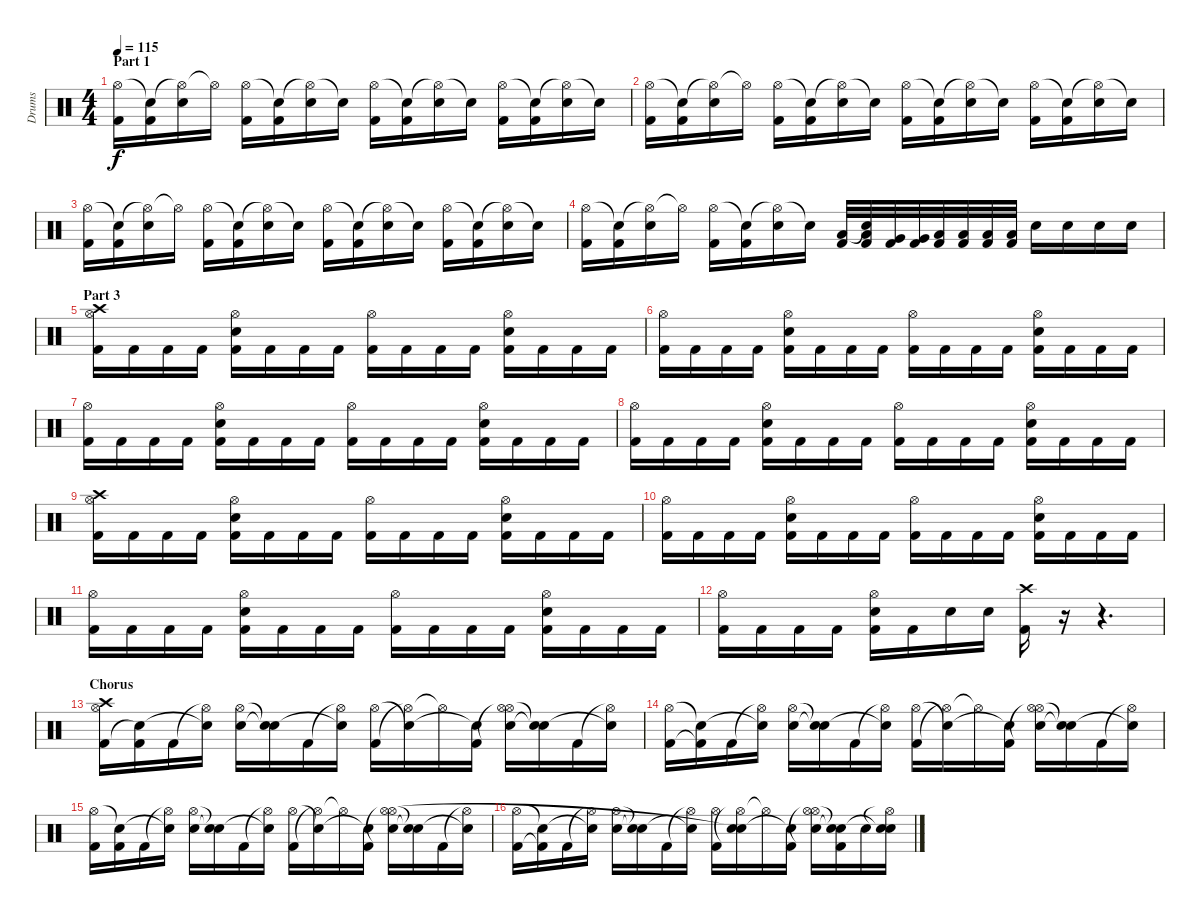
\track ("Drums" "Drums") {instrument percussion}
\staff {score}
\articulation defaults
\ts (4 4)
\section ("" "Part 1")
\tempo 115
\clef neutral
\ks c
("Hi-Hat (open)" "Kick (hit) 2").16{dy f} ("Snare (hit)"{t} "Kick (hit) 2").16 ("Hi-Hat (open)"{t} "Electric Snare (hit)").16 "Hi-Hat (open)"{t}.16 ("Hi-Hat (open)" "Kick (hit) 2").16 ("Snare (hit)"{t} "Kick (hit) 2").16 ("Hi-Hat (open)"{t} "Electric Snare (hit)").16 "Snare (hit)"{t}.16 ("Hi-Hat (open)" "Kick (hit) 2").16 ("Snare (hit)"{t} "Kick (hit) 2").16 ("Hi-Hat (open)"{t} "Electric Snare (hit)").16 "Snare (hit)"{t}.16 ("Hi-Hat (open)" "Kick (hit) 2").16 ("Snare (hit)"{t} "Kick (hit) 2").16 ("Hi-Hat (open)"{t} "Electric Snare (hit)").16 "Snare (hit)"{t}.16 |
("Hi-Hat (open)" "Kick (hit) 2").16 ("Snare (hit)"{t} "Kick (hit) 2").16 ("Hi-Hat (open)"{t} "Electric Snare (hit)").16 "Hi-Hat (open)"{t}.16 ("Hi-Hat (open)" "Kick (hit) 2").16 ("Snare (hit)"{t} "Kick (hit) 2").16 ("Hi-Hat (open)"{t} "Electric Snare (hit)").16 "Snare (hit)"{t}.16 ("Hi-Hat (open)" "Kick (hit) 2").16 ("Snare (hit)"{t} "Kick (hit) 2").16 ("Hi-Hat (open)"{t} "Electric Snare (hit)").16 "Snare (hit)"{t}.16 ("Hi-Hat (open)" "Kick (hit) 2").16 ("Snare (hit)"{t} "Kick (hit) 2").16 ("Hi-Hat (open)"{t} "Electric Snare (hit)").16 "Snare (hit)"{t}.16 |
("Hi-Hat (open)" "Kick (hit) 2").16 ("Snare (hit)"{t} "Kick (hit) 2").16 ("Hi-Hat (open)"{t} "Electric Snare (hit)").16 "Hi-Hat (open)"{t}.16 ("Hi-Hat (open)" "Kick (hit) 2").16 ("Snare (hit)"{t} "Kick (hit) 2").16 ("Hi-Hat (open)"{t} "Electric Snare (hit)").16 "Snare (hit)"{t}.16 ("Hi-Hat (open)" "Kick (hit) 2").16 ("Snare (hit)"{t} "Kick (hit) 2").16 ("Hi-Hat (open)"{t} "Electric Snare (hit)").16 "Snare (hit)"{t}.16 ("Hi-Hat (open)" "Kick (hit) 2").16 ("Snare (hit)"{t} "Kick (hit) 2").16 ("Hi-Hat (open)"{t} "Electric Snare (hit)").16 "Snare (hit)"{t}.16 |
("Hi-Hat (open)" "Kick (hit) 2").16 ("Snare (hit)"{t} "Kick (hit) 2").16 ("Hi-Hat (open)"{t} "Electric Snare (hit)").16 "Hi-Hat (open)"{t}.16 ("Hi-Hat (open)" "Kick (hit) 2").16 ("Snare (hit)"{t} "Kick (hit) 2").16 ("Hi-Hat (open)"{t} "Electric Snare (hit)").16 "Snare (hit)"{t}.16 ("Low Tom (hit)" "Kick (hit) 2").32 ("Snare (hit)"{t} "Low Tom (hit)" "Kick (hit) 2").32 ("Very Low Tom (hit)" "Kick (hit) 2").32 ("Very Low Tom (hit)" "Kick (hit) 2").32 ("Low Floor Tom (hit)" "Kick (hit) 2").32 ("Low Floor Tom (hit)" "Kick (hit) 2").32 ("Low Floor Tom (hit)" "Kick (hit) 2").32 ("Low Floor Tom (hit)" "Kick (hit) 2").32 "Electric Snare (hit)".16 "Electric Snare (hit)".16 "Electric Snare (hit)".16 "Electric Snare (hit)".16 |
\section ("" "Part 3")
("Kick (hit) 2" "Crash high (hit)" "Hi-Hat (open)").16 "Kick (hit) 2".16 "Kick (hit) 2".16 "Kick (hit) 2".16 ("Kick (hit) 2" "Electric Snare (hit)" "Hi-Hat (open)").16 "Kick (hit) 2".16 "Kick (hit) 2".16 "Kick (hit) 2".16 ("Kick (hit) 2" "Hi-Hat (open)").16 "Kick (hit) 2".16 "Kick (hit) 2".16 "Kick (hit) 2".16 ("Kick (hit) 2" "Electric Snare (hit)" "Hi-Hat (open)").16 "Kick (hit) 2".16 "Kick (hit) 2".16 "Kick (hit) 2".16 |
("Kick (hit) 2" "Hi-Hat (open)").16 "Kick (hit) 2".16 "Kick (hit) 2".16 "Kick (hit) 2".16 ("Kick (hit) 2" "Electric Snare (hit)" "Hi-Hat (open)").16 "Kick (hit) 2".16 "Kick (hit) 2".16 "Kick (hit) 2".16 ("Kick (hit) 2" "Hi-Hat (open)").16 "Kick (hit) 2".16 "Kick (hit) 2".16 "Kick (hit) 2".16 ("Kick (hit) 2" "Electric Snare (hit)" "Hi-Hat (open)").16 "Kick (hit) 2".16 "Kick (hit) 2".16 "Kick (hit) 2".16 |
("Kick (hit) 2" "Hi-Hat (open)").16 "Kick (hit) 2".16 "Kick (hit) 2".16 "Kick (hit) 2".16 ("Kick (hit) 2" "Electric Snare (hit)" "Hi-Hat (open)").16 "Kick (hit) 2".16 "Kick (hit) 2".16 "Kick (hit) 2".16 ("Kick (hit) 2" "Hi-Hat (open)").16 "Kick (hit) 2".16 "Kick (hit) 2".16 "Kick (hit) 2".16 ("Kick (hit) 2" "Electric Snare (hit)" "Hi-Hat (open)").16 "Kick (hit) 2".16 "Kick (hit) 2".16 "Kick (hit) 2".16 |
("Kick (hit) 2" "Hi-Hat (open)").16 "Kick (hit) 2".16 "Kick (hit) 2".16 "Kick (hit) 2".16 ("Kick (hit) 2" "Electric Snare (hit)" "Hi-Hat (open)").16 "Kick (hit) 2".16 "Kick (hit) 2".16 "Kick (hit) 2".16 ("Kick (hit) 2" "Hi-Hat (open)").16 "Kick (hit) 2".16 "Kick (hit) 2".16 "Kick (hit) 2".16 ("Kick (hit) 2" "Electric Snare (hit)" "Hi-Hat (open)").16 "Kick (hit) 2".16 "Kick (hit) 2".16 "Kick (hit) 2".16 |
("Kick (hit) 2" "Crash high (hit)" "Hi-Hat (open)").16 "Kick (hit) 2".16 "Kick (hit) 2".16 "Kick (hit) 2".16 ("Kick (hit) 2" "Electric Snare (hit)" "Hi-Hat (open)").16 "Kick (hit) 2".16 "Kick (hit) 2".16 "Kick (hit) 2".16 ("Kick (hit) 2" "Hi-Hat (open)").16 "Kick (hit) 2".16 "Kick (hit) 2".16 "Kick (hit) 2".16 ("Kick (hit) 2" "Electric Snare (hit)" "Hi-Hat (open)").16 "Kick (hit) 2".16 "Kick (hit) 2".16 "Kick (hit) 2".16 |
("Kick (hit) 2" "Hi-Hat (open)").16 "Kick (hit) 2".16 "Kick (hit) 2".16 "Kick (hit) 2".16 ("Kick (hit) 2" "Electric Snare (hit)" "Hi-Hat (open)").16 "Kick (hit) 2".16 "Kick (hit) 2".16 "Kick (hit) 2".16 ("Kick (hit) 2" "Hi-Hat (open)").16 "Kick (hit) 2".16 "Kick (hit) 2".16 "Kick (hit) 2".16 ("Kick (hit) 2" "Electric Snare (hit)" "Hi-Hat (open)").16 "Kick (hit) 2".16 "Kick (hit) 2".16 "Kick (hit) 2".16 |
("Kick (hit) 2" "Hi-Hat (open)").16 "Kick (hit) 2".16 "Kick (hit) 2".16 "Kick (hit) 2".16 ("Kick (hit) 2" "Electric Snare (hit)" "Hi-Hat (open)").16 "Kick (hit) 2".16 "Kick (hit) 2".16 "Kick (hit) 2".16 ("Kick (hit) 2" "Hi-Hat (open)").16 "Kick (hit) 2".16 "Kick (hit) 2".16 "Kick (hit) 2".16 ("Kick (hit) 2" "Electric Snare (hit)" "Hi-Hat (open)").16 "Kick (hit) 2".16 "Kick (hit) 2".16 "Kick (hit) 2".16 |
("Kick (hit) 2" "Hi-Hat (open)").16 "Kick (hit) 2".16 "Kick (hit) 2".16 "Kick (hit) 2".16 ("Kick (hit) 2" "Electric Snare (hit)" "Hi-Hat (open)").16 "Kick (hit) 2".16 "Electric Snare (hit)".16 "Electric Snare (hit)".16 ("Crash high (hit)" "Kick (hit) 2").16 r.16 r.4{d} |
\section ("" "Chorus")
("Crash high (hit)" "Kick (hit) 2" "Hi-Hat (open)").16 ("Kick (hit) 2" "Snare (hit)"{t}).16 "Kick (hit) 2".16 ("Hi-Hat (open)"{t} "Snare (hit)"{t}).16 ("Electric Snare (hit)" "Hi-Hat (open)").16 ("Snare (hit)"{t} "Snare (hit)"{t}).16 "Kick (hit) 2".16 ("Hi-Hat (open)"{t} "Snare (hit)"{t}).16 ("Kick (hit) 2" "Hi-Hat (open)").16 ("Hi-Hat (open)"{t} "Snare (hit)"{t}).16 "Hi-Hat (open)"{t}.16 ("Kick (hit) 2" "Snare (hit)"{t}).16 ("Hi-Hat (open)"{t} "Electric Snare (hit)" "Hi-Hat (open)").16 ("Electric Snare (hit)"{t} "Snare (hit)"{t}).16 "Kick (hit) 2".16 ("Hi-Hat (open)"{t} "Snare (hit)"{t}).16 |
("Kick (hit) 2" "Hi-Hat (open)").16 ("Kick (hit) 2"{t} "Snare (hit)"{t}).16 "Kick (hit) 2".16 ("Hi-Hat (open)"{t} "Snare (hit)"{t}).16 ("Electric Snare (hit)" "Hi-Hat (open)").16 ("Snare (hit)"{t} "Snare (hit)"{t}).16 "Kick (hit) 2".16 ("Hi-Hat (open)"{t} "Snare (hit)"{t}).16 ("Kick (hit) 2" "Hi-Hat (open)").16 ("Hi-Hat (open)"{t} "Snare (hit)"{t}).16 "Hi-Hat (open)"{t}.16 ("Kick (hit) 2" "Snare (hit)"{t}).16 ("Hi-Hat (open)"{t} "Electric Snare (hit)" "Hi-Hat (open)").16 ("Electric Snare (hit)"{t} "Snare (hit)"{t}).16 "Kick (hit) 2".16 ("Hi-Hat (open)"{t} "Snare (hit)"{t}).16 |
("Kick (hit) 2" "Hi-Hat (open)").16 ("Kick (hit) 2" "Snare (hit)"{t}).16 "Kick (hit) 2".16 ("Hi-Hat (open)"{t} "Snare (hit)"{t}).16 ("Electric Snare (hit)" "Hi-Hat (open)").16 ("Snare (hit)"{t} "Snare (hit)"{t}).16 "Kick (hit) 2".16 ("Hi-Hat (open)"{t} "Snare (hit)"{t}).16 ("Kick (hit) 2" "Hi-Hat (open)").16 ("Hi-Hat (open)"{t} "Snare (hit)"{t}).16 "Hi-Hat (open)"{t}.16 ("Kick (hit) 2" "Snare (hit)"{t}).16 ("Hi-Hat (open)"{t} "Electric Snare (hit)" "Hi-Hat (open)").16 ("Electric Snare (hit)"{t} "Snare (hit)"{t}).16 "Kick (hit) 2".16 ("Hi-Hat (open)"{t} "Snare (hit)"{t}).16 |
("Kick (hit) 2" "Hi-Hat (open)").16 ("Kick (hit) 2"{t} "Snare (hit)"{t}).16 "Kick (hit) 2".16 ("Hi-Hat (open)"{t} "Snare (hit)"{t}).16 ("Electric Snare (hit)" "Hi-Hat (open)").16 ("Snare (hit)"{t} "Snare (hit)"{t}).16 "Kick (hit) 2".16 ("Hi-Hat (open)"{t} "Snare (hit)"{t}).16 ("Kick (hit) 2" "Hi-Hat (open)").16 ("Hi-Hat (open)"{t} "Electric Snare (hit)" "Snare (hit)"{t}).16 "Hi-Hat (open)"{t}.16 ("Kick (hit) 2" "Snare (hit)"{t}).16 ("Hi-Hat (open)"{t} "Electric Snare (hit)" "Hi-Hat (open)").16 ("Kick (hit) 2" "Electric Snare (hit)"{t} "Snare (hit)"{t}).16 "Electric Snare (hit)".16 ("Hi-Hat (open)"{t} "Electric Snare (hit)" "Snare (hit)"{t}).16
